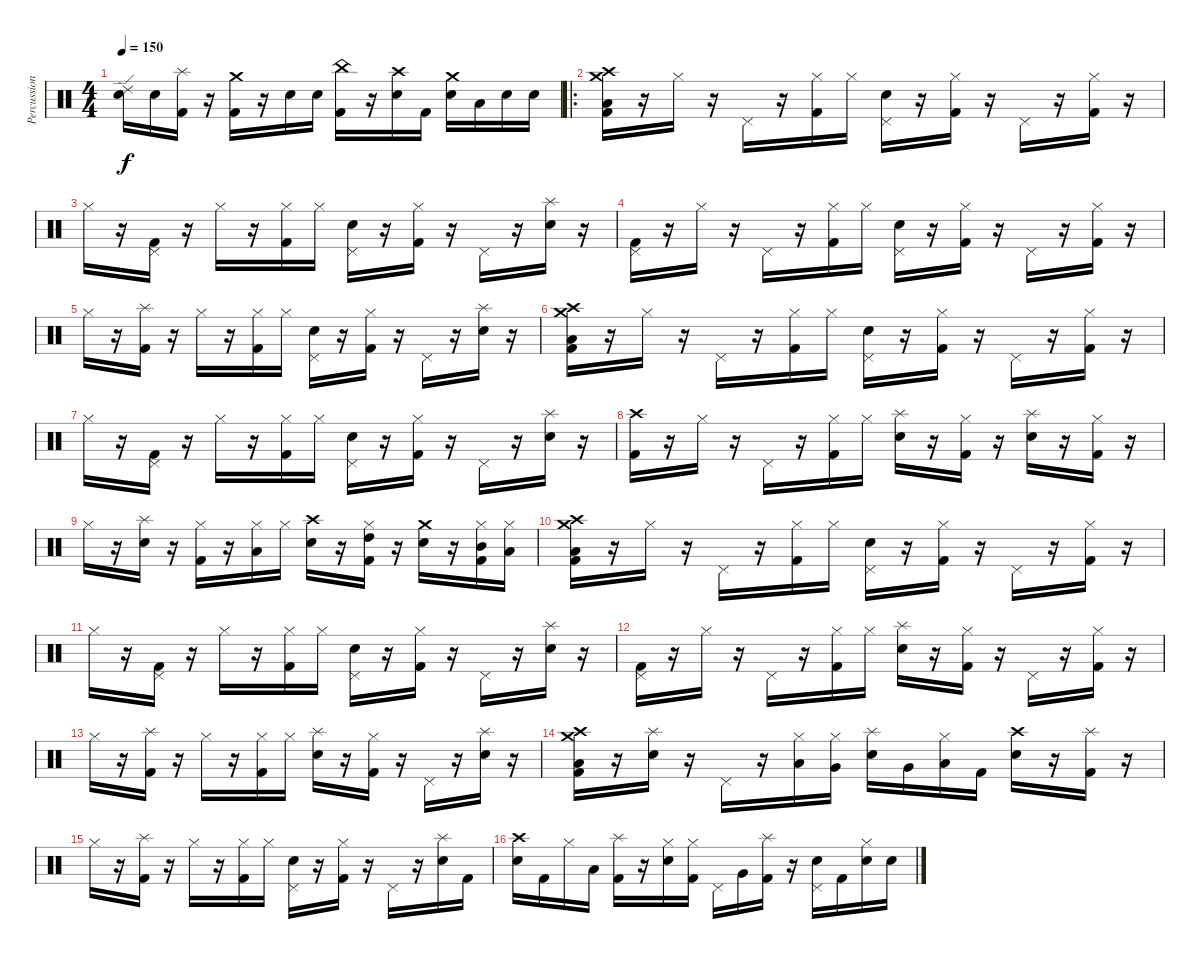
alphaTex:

\track ("Percussion" "Percussion") {instrument percussion}
\staff {score}
\articulation defaults
\ts (4 4)
\tempo 150
\clef neutral
\ks c
("Ride (edge) 2" "Electric Snare (hit)").16{dy f} "Electric Snare (hit)".16 ("Splash (hit)" "Kick (hit) 2").16 r.16 ("Crash medium (hit)" "Kick (hit) 2").16 r.16 "Electric Snare (hit)".16 "Electric Snare (hit)".16 ("China (hit)" "Kick (hit) 2").16 r.16 ("Crash high (hit)" "Electric Snare (hit)").16 "Kick (hit) 2".16 ("Crash medium (hit)" "Electric Snare (hit)").16 "Low Tom (hit)".16 "Electric Snare (hit)".16 "Electric Snare (hit)".16 |
\ro
("Crash high (hit)" "Crash medium (hit)" "Low Floor Tom (hit)" "Kick (hit) 2").16 r.16 "Hi-Hat (closed)".16 r.16 "Pedal Hi-Hat (hit)".16 r.16 ("Hi-Hat (closed)" "Kick (hit) 2").16 "Hi-Hat (closed)".16 ("Pedal Hi-Hat (hit)" "Electric Snare (hit)").16 r.16 ("Hi-Hat (closed)" "Kick (hit) 2").16 r.16 "Pedal Hi-Hat (hit)".16 r.16 ("Hi-Hat (closed)" "Kick (hit) 2").16 r.16 |
"Hi-Hat (closed)".16 r.16 ("Pedal Hi-Hat (hit)" "Kick (hit) 2").16 r.16 "Hi-Hat (closed)".16 r.16 ("Hi-Hat (closed)" "Kick (hit) 2").16 "Hi-Hat (closed)".16 ("Pedal Hi-Hat (hit)" "Electric Snare (hit)").16 r.16 ("Hi-Hat (closed)" "Kick (hit) 2").16 r.16 "Pedal Hi-Hat (hit)".16 r.16 ("Splash (hit)" "Electric Snare (hit)").16 r.16 |
("Pedal Hi-Hat (hit)" "Kick (hit) 2").16 r.16 "Hi-Hat (closed)".16 r.16 "Pedal Hi-Hat (hit)".16 r.16 ("Hi-Hat (closed)" "Kick (hit) 2").16 "Hi-Hat (closed)".16 ("Pedal Hi-Hat (hit)" "Electric Snare (hit)").16 r.16 ("Hi-Hat (closed)" "Kick (hit) 2").16 r.16 "Pedal Hi-Hat (hit)".16 r.16 ("Hi-Hat (closed)" "Kick (hit) 2").16 r.16 |
"Hi-Hat (closed)".16 r.16 ("Splash (hit)" "Kick (hit) 2").16 r.16 "Hi-Hat (closed)".16 r.16 ("Hi-Hat (closed)" "Kick (hit) 2").16 "Hi-Hat (closed)".16 ("Pedal Hi-Hat (hit)" "Electric Snare (hit)").16 r.16 ("Hi-Hat (closed)" "Kick (hit) 2").16 r.16 "Pedal Hi-Hat (hit)".16 r.16 ("Splash (hit)" "Electric Snare (hit)").16 r.16 |
("Crash high (hit)" "Crash medium (hit)" "Low Floor Tom (hit)" "Kick (hit) 2").16 r.16 "Hi-Hat (closed)".16 r.16 "Pedal Hi-Hat (hit)".16 r.16 ("Hi-Hat (closed)" "Kick (hit) 2").16 "Hi-Hat (closed)".16 ("Pedal Hi-Hat (hit)" "Electric Snare (hit)").16 r.16 ("Hi-Hat (closed)" "Kick (hit) 2").16 r.16 "Pedal Hi-Hat (hit)".16 r.16 ("Hi-Hat (closed)" "Kick (hit) 2").16 r.16 |
"Hi-Hat (closed)".16 r.16 ("Pedal Hi-Hat (hit)" "Kick (hit) 2").16 r.16 "Hi-Hat (closed)".16 r.16 ("Hi-Hat (closed)" "Kick (hit) 2").16 "Hi-Hat (closed)".16 ("Pedal Hi-Hat (hit)" "Electric Snare (hit)").16 r.16 ("Hi-Hat (closed)" "Kick (hit) 2").16 r.16 "Pedal Hi-Hat (hit)".16 r.16 ("Splash (hit)" "Electric Snare (hit)").16 r.16 |
("Crash high (hit)" "Kick (hit) 2").16 r.16 "Hi-Hat (closed)".16 r.16 "Pedal Hi-Hat (hit)".16 r.16 ("Hi-Hat (closed)" "Kick (hit) 2").16 "Hi-Hat (closed)".16 ("Splash (hit)" "Electric Snare (hit)").16 r.16 ("Hi-Hat (closed)" "Kick (hit) 2").16 r.16 ("Splash (hit)" "Electric Snare (hit)").16 r.16 ("Hi-Hat (closed)" "Kick (hit) 2").16 r.16 |
"Hi-Hat (closed)".16 r.16 ("Splash (hit)" "Electric Snare (hit)").16 r.16 ("Hi-Hat (closed)" "Kick (hit) 2").16 r.16 ("Hi-Hat (closed)" "Low Tom (hit)").16 "Hi-Hat (closed)".16 ("Crash high (hit)" "Electric Snare (hit)").16 r.16 ("Hi-Hat (closed)" "High Tom (hit)" "Kick (hit) 2").16 r.16 ("Crash medium (hit)" "Electric Snare (hit)").16 r.16 ("Hi-Hat (closed)" "Mid Tom (hit)" "Kick (hit) 2").16 ("Hi-Hat (closed)" "Low Tom (hit)").16 |
("Crash high (hit)" "Crash medium (hit)" "Low Floor Tom (hit)" "Kick (hit) 2").16 r.16 "Hi-Hat (closed)".16 r.16 "Pedal Hi-Hat (hit)".16 r.16 ("Hi-Hat (closed)" "Kick (hit) 2").16 "Hi-Hat (closed)".16 ("Pedal Hi-Hat (hit)" "Electric Snare (hit)").16 r.16 ("Hi-Hat (closed)" "Kick (hit) 2").16 r.16 "Pedal Hi-Hat (hit)".16 r.16 ("Hi-Hat (closed)" "Kick (hit) 2").16 r.16 |
"Hi-Hat (closed)".16 r.16 ("Pedal Hi-Hat (hit)" "Kick (hit) 2").16 r.16 "Hi-Hat (closed)".16 r.16 ("Hi-Hat (closed)" "Kick (hit) 2").16 "Hi-Hat (closed)".16 ("Pedal Hi-Hat (hit)" "Electric Snare (hit)").16 r.16 ("Hi-Hat (closed)" "Kick (hit) 2").16 r.16 "Pedal Hi-Hat (hit)".16 r.16 ("Splash (hit)" "Electric Snare (hit)").16 r.16 |
("Pedal Hi-Hat (hit)" "Kick (hit) 2").16 r.16 "Hi-Hat (closed)".16 r.16 "Pedal Hi-Hat (hit)".16 r.16 ("Hi-Hat (closed)" "Kick (hit) 2").16 "Hi-Hat (closed)".16 ("Splash (hit)" "Electric Snare (hit)").16 r.16 ("Hi-Hat (closed)" "Kick (hit) 2").16 r.16 "Pedal Hi-Hat (hit)".16 r.16 ("Hi-Hat (closed)" "Kick (hit) 2").16 r.16 |
"Hi-Hat (closed)".16 r.16 ("Splash (hit)" "Kick (hit) 2").16 r.16 "Hi-Hat (closed)".16 r.16 ("Hi-Hat (closed)" "Kick (hit) 2").16 "Hi-Hat (closed)".16 ("Splash (hit)" "Electric Snare (hit)").16 r.16 ("Hi-Hat (closed)" "Kick (hit) 2").16 r.16 "Pedal Hi-Hat (hit)".16 r.16 ("Splash (hit)" "Electric Snare (hit)").16 r.16 |
("Crash high (hit)" "Crash medium (hit)" "Low Floor Tom (hit)" "Kick (hit) 2").16 r.16 ("Splash (hit)" "Electric Snare (hit)").16 r.16 "Pedal Hi-Hat (hit)".16 r.16 ("Hi-Hat (closed)" "Low Tom (hit)").16 ("Hi-Hat (closed)" "Very Low Tom (hit)").16 ("Splash (hit)" "Electric Snare (hit)").16 "Very Low Tom (hit)".16 ("Hi-Hat (closed)" "Low Floor Tom (hit)").16 "Kick (hit) 2".16 ("Crash high (hit)" "Electric Snare (hit)").16 r.16 ("Splash (hit)" "Kick (hit) 2").16 r.16 |
"Hi-Hat (closed)".16 r.16 ("Splash (hit)" "Kick (hit) 2").16 r.16 "Hi-Hat (closed)".16 r.16 ("Hi-Hat (closed)" "Kick (hit) 2").16 "Hi-Hat (closed)".16 ("Pedal Hi-Hat (hit)" "Electric Snare (hit)").16 r.16 ("Hi-Hat (closed)" "Kick (hit) 2").16 r.16 "Pedal Hi-Hat (hit)".16 r.16 ("Splash (hit)" "Electric Snare (hit)").16 "Kick (hit) 2".16 |
("Crash high (hit)" "Electric Snare (hit)").16 "Kick (hit) 2".16 "Hi-Hat (closed)".16 "Low Tom (hit)".16 ("Splash (hit)" "Kick (hit) 2").16 r.16 ("Hi-Hat (closed)" "Electric Snare (hit)").16 ("Hi-Hat (closed)" "Kick (hit) 2").16 "Pedal Hi-Hat (hit)".16 "Very Low Tom (hit)".16 ("Splash (hit)" "Kick (hit) 2").16 r.16 ("Pedal Hi-Hat (hit)" "Electric Snare (hit)").16 "Kick (hit) 2".16 ("Hi-Hat (closed)" "Electric Snare (hit)").16 "Electric Snare (hit)".16
